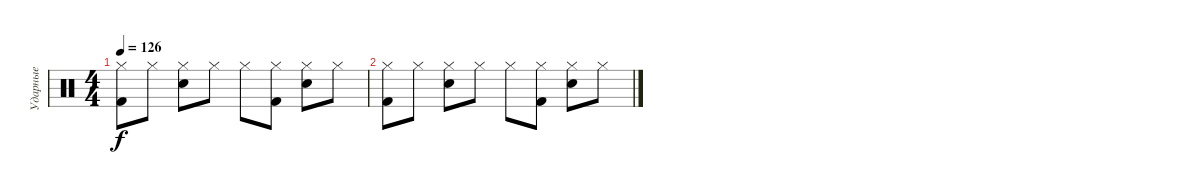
\track ("Ударные" "Ударные") {instrument percussion}
\staff {score}
\articulation defaults
\ts (4 4)
\tempo 126
\clef neutral
\ks c
("Hi-Hat (closed)" "Kick (hit) 2").8{dy f} "Hi-Hat (closed)".8 ("Hi-Hat (closed)" "Snare (hit) 2").8 "Hi-Hat (closed)".8 "Hi-Hat (closed)".8 ("Hi-Hat (closed)" "Kick (hit) 2").8 ("Hi-Hat (closed)" "Snare (hit) 2").8 "Hi-Hat (closed)".8 |
("Hi-Hat (closed)" "Kick (hit) 2").8 "Hi-Hat (closed)".8 ("Hi-Hat (closed)" "Snare (hit) 2").8 "Hi-Hat (closed)".8 "Hi-Hat (closed)".8 ("Hi-Hat (closed)" "Kick (hit) 2").8 ("Hi-Hat (closed)" "Snare (hit) 2").8 "Hi-Hat (closed)".8
